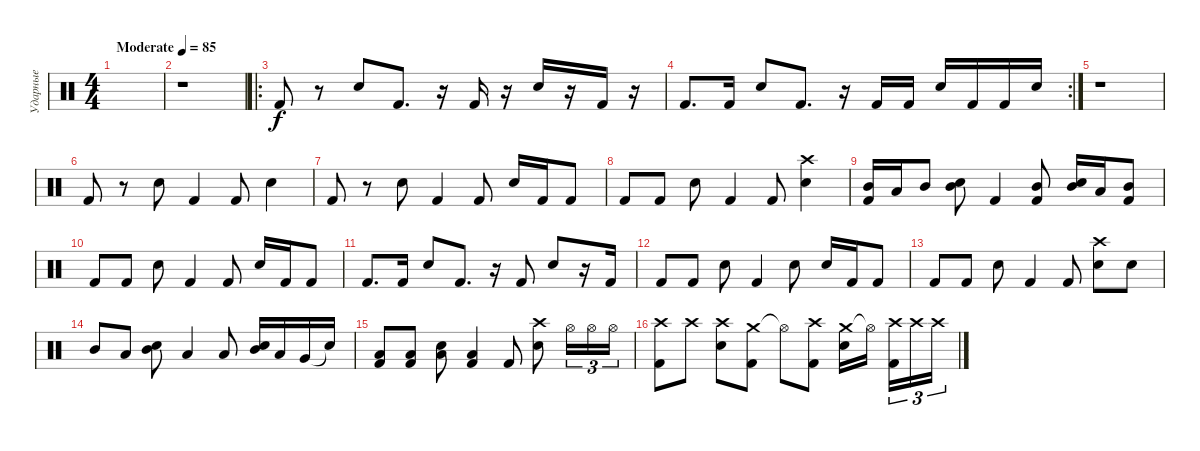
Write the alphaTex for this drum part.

\track ("Ударные" "Ударные") {instrument percussion}
\staff {score}
\articulation defaults
\ts (4 4)
\tempo (85 "Moderate")
\clef neutral
\ks c
|
r.1 |
\ro "Kick (hit) 2".8
r.8 "Snare (hit) 2".8 "Kick (hit) 2".8{d} r.16 "Kick (hit) 2".16 r.16 "Snare (hit) 2".16 r.16 "Kick (hit) 2".16 r.16 |
\rc 2 "Kick (hit) 2".8{d} "Kick (hit) 2".16 "Snare (hit) 2".8 "Kick (hit) 2".8{d}
r.16 "Kick (hit) 2".16 "Kick (hit) 2".16 "Snare (hit) 2".16 "Kick (hit) 2".16 "Kick (hit) 2".16 "Snare (hit) 2".16 |
r.1 |
"Kick (hit) 2".8 r.8 "Snare (hit) 2".8 "Kick (hit) 2".4 "Kick (hit) 2".8 "Snare (hit) 2".4 |
"Kick (hit) 2".8 r.8 "Snare (hit) 2".8 "Kick (hit) 2".4 "Kick (hit) 2".8 "Snare (hit) 2".16 "Kick (hit) 2".16 "Kick (hit) 2".8 |
"Kick (hit) 2".8 "Kick (hit) 2".8 "Snare (hit) 2".8 "Kick (hit) 2".4 "Kick (hit) 2".8 ("Crash high (hit)" "Snare (hit) 2").4 |
("Mid Tom (hit)" "Kick (hit) 2").16 "Low Tom (hit)".16 "Mid Tom (hit)".8 ("Mid Tom (hit)" "Snare (hit) 2").8 "Kick (hit) 2".4 ("Mid Tom (hit)" "Kick (hit) 2").8 ("Mid Tom (hit)" "Snare (hit) 2").16 "Low Tom (hit)".16 ("Mid Tom (hit)" "Kick (hit) 2").8 |
"Kick (hit) 2".8 "Kick (hit) 2".8 "Snare (hit) 2".8 "Kick (hit) 2".4 "Kick (hit) 2".8 "Snare (hit) 2".16 "Kick (hit) 2".16 "Kick (hit) 2".8 |
"Kick (hit) 2".8{d} "Kick (hit) 2".16 "Snare (hit) 2".8 "Kick (hit) 2".8{d} r.16 "Kick (hit) 2".8 "Snare (hit) 2".8 r.16 "Kick (hit) 2".16 |
"Kick (hit) 2".8 "Kick (hit) 2".8 "Snare (hit) 2".8 "Kick (hit) 2".4 "Snare (hit) 2".8 "Snare (hit) 2".16 "Kick (hit) 2".16 "Kick (hit) 2".8 |
"Kick (hit) 2".8 "Kick (hit) 2".8 "Snare (hit) 2".8 "Kick (hit) 2".4 "Kick (hit) 2".8 ("Crash high (hit)" "Snare (hit) 2").8 "Snare (hit) 2".8 |
"Mid Tom (hit)".8 "Low Tom (hit)".8 ("Mid Tom (hit)" "Snare (hit) 2").8 "Low Floor Tom (hit)".4 "Low Floor Tom (hit)".8 ("Mid Tom (hit)" "Snare (hit) 2").16 "Low Tom (hit)".16 "Very Low Tom (hit)".16 "Electric Snare (hit)"{t}.16 |
("Low Floor Tom (hit)" "Kick (hit) 2").8 ("Low Floor Tom (hit)" "Kick (hit) 2").8 ("Low Tom (hit)" "Snare (hit) 2").8 ("Low Floor Tom (hit)" "Kick (hit) 2").4 "Kick (hit) 2".8 ("Crash high (hit)" "Snare (hit) 2").8 "Hi-Hat (open)".16{tu (3 2)} "Hi-Hat (open)".16{tu (3 2)} "Hi-Hat (open)".16{tu (3 2)} |
("Crash high (hit)" "Kick (hit) 2").8 "Crash high (hit)".8 ("Crash high (hit)" "Snare (hit) 2").8 ("Crash medium (hit)" "Kick (hit) 2").8 "Hi-Hat (open)"{t}.8 ("Crash high (hit)" "Kick (hit) 2").8 ("Crash medium (hit)" "Snare (hit) 2").16 "Hi-Hat (open)"{t}.16{beam splitsecondary} ("Crash high (hit)" "Kick (hit) 2").16{tu (3 2)} "Crash high (hit)".16{tu (3 2)} "Crash high (hit)".16{tu (3 2)}
